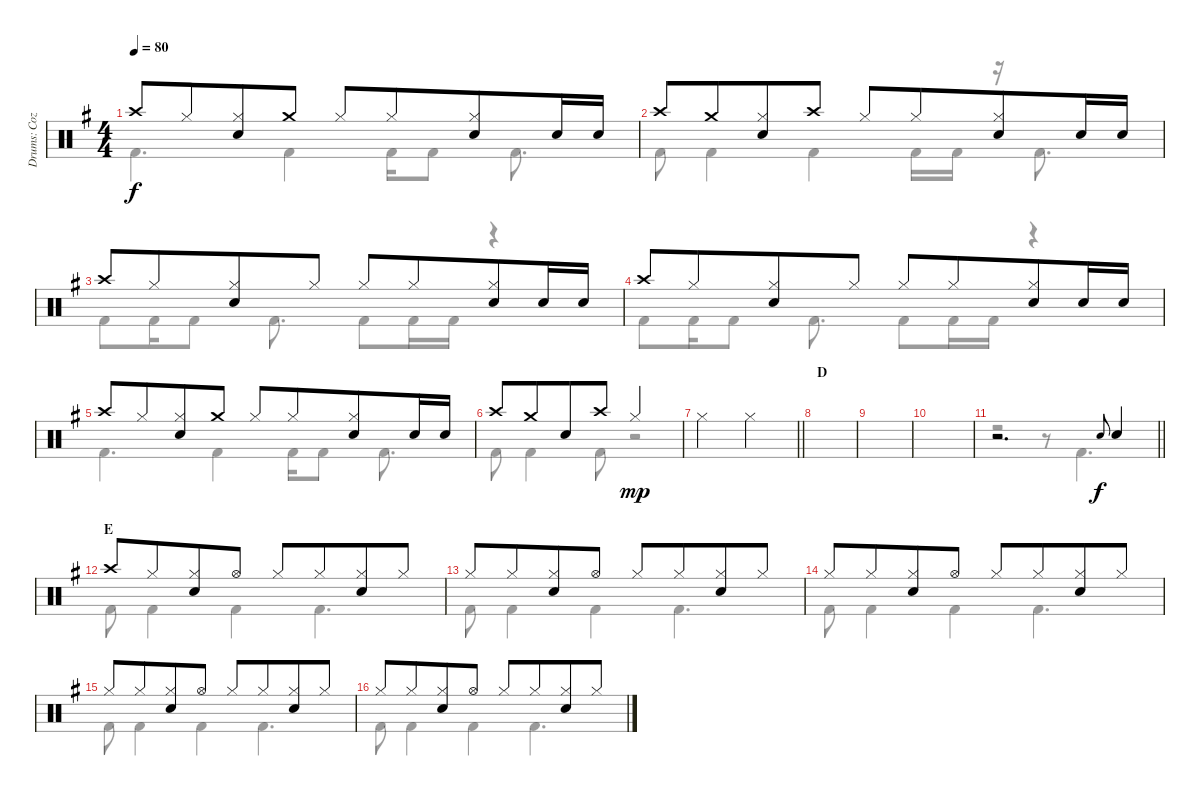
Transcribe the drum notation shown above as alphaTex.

\track ("Drums: Cozy" "Drums: Coz") {instrument percussion}
\staff {score}
\articulation defaults
\voice
\ts (4 4)
\tempo 80
\clef neutral
\ks g "Crash high (hit)".8{dy f} "Hi-Hat (closed)".8{beam merge}
("Hi-Hat (closed)" "Electric Snare (hit)").8 "Crash medium (hit)".8 "Hi-Hat (closed)".8 "Hi-Hat (closed)".8{beam merge} ("Hi-Hat (closed)" "Electric Snare (hit)").8 "Electric Snare (hit)".16 "Electric Snare (hit)".16 |
"Crash high (hit)".8 "Crash medium (hit)".8{beam merge} ("Hi-Hat (closed)" "Electric Snare (hit)").8 "Crash high (hit)".8 "Hi-Hat (closed)".8 "Hi-Hat (closed)".8{beam merge} ("Hi-Hat (closed)" "Electric Snare (hit)").8 "Electric Snare (hit)".16 "Electric Snare (hit)".16 |
"Crash high (hit)".8 "Hi-Hat (closed)".8{beam merge} ("Hi-Hat (closed)" "Electric Snare (hit)").8 "Hi-Hat (closed)".8 "Hi-Hat (closed)".8 "Hi-Hat (closed)".8{beam merge} ("Hi-Hat (closed)" "Electric Snare (hit)").8 "Electric Snare (hit)".16 "Electric Snare (hit)".16 |
"Crash high (hit)".8 "Hi-Hat (closed)".8{beam merge} ("Hi-Hat (closed)" "Electric Snare (hit)").8 "Hi-Hat (closed)".8 "Hi-Hat (closed)".8 "Hi-Hat (closed)".8{beam merge} ("Hi-Hat (closed)" "Electric Snare (hit)").8 "Electric Snare (hit)".16 "Electric Snare (hit)".16 |
"Crash high (hit)".8 "Hi-Hat (closed)".8{beam merge} ("Hi-Hat (closed)" "Electric Snare (hit)").8 "Crash medium (hit)".8 "Hi-Hat (closed)".8 "Hi-Hat (closed)".8{beam merge} ("Hi-Hat (closed)" "Electric Snare (hit)").8 "Electric Snare (hit)".16 "Electric Snare (hit)".16 |
"Crash high (hit)".8 "Crash medium (hit)".8{beam merge} "Electric Snare (hit)".8 "Crash high (hit)".8 "Hi-Hat (closed)".2{dy mp} |
\barLineRight lightlight "Hi-Hat (closed)".2 "Hi-Hat (closed)".2
|
\section ("" "D")
|
|
|
\barLineRight lightlight
r.2{d} "Electric Snare (hit)".8{gr onbeat dy f} "Snare (hit) 2".4 |
\section ("" "E")
"Crash high (hit)".8 "Hi-Hat (closed)".8{beam merge} ("Hi-Hat (closed)" "Electric Snare (hit)").8 "Hi-Hat (open)".8 "Hi-Hat (closed)".8 "Hi-Hat (closed)".8{beam merge} ("Hi-Hat (closed)" "Electric Snare (hit)").8 "Hi-Hat (closed)".8 |
"Hi-Hat (closed)".8 "Hi-Hat (closed)".8{beam merge} ("Hi-Hat (closed)" "Electric Snare (hit)").8 "Hi-Hat (open)".8 "Hi-Hat (closed)".8 "Hi-Hat (closed)".8{beam merge} ("Hi-Hat (closed)" "Electric Snare (hit)").8 "Hi-Hat (closed)".8 |
"Hi-Hat (closed)".8 "Hi-Hat (closed)".8{beam merge} ("Hi-Hat (closed)" "Electric Snare (hit)").8 "Hi-Hat (open)".8 "Hi-Hat (closed)".8 "Hi-Hat (closed)".8{beam merge} ("Hi-Hat (closed)" "Electric Snare (hit)").8 "Hi-Hat (closed)".8 |
"Hi-Hat (closed)".8 "Hi-Hat (closed)".8{beam merge} ("Hi-Hat (closed)" "Electric Snare (hit)").8 "Hi-Hat (open)".8 "Hi-Hat (closed)".8 "Hi-Hat (closed)".8{beam merge} ("Hi-Hat (closed)" "Electric Snare (hit)").8 "Hi-Hat (closed)".8 |
"Hi-Hat (closed)".8 "Hi-Hat (closed)".8{beam merge} ("Hi-Hat (closed)" "Electric Snare (hit)").8 "Hi-Hat (open)".8 "Hi-Hat (closed)".8 "Hi-Hat (closed)".8{beam merge} ("Hi-Hat (closed)" "Electric Snare (hit)").8 "Hi-Hat (closed)".8
\voice
\clef neutral
\ottava regular
\simile none
\ks g "Kick (hit) 2".4{d dy f} "Kick (hit) 2".4 "Kick (hit) 2".16 "Kick (hit) 2".8 "Kick (hit) 2".8{d}
|
"Kick (hit) 2".8 "Kick (hit) 2".4 "Kick (hit) 2".4 "Kick (hit) 2".16 "Kick (hit) 2".16 r.16 "Kick (hit) 2".8{d} |
"Kick (hit) 2".8 "Kick (hit) 2".16 "Kick (hit) 2".8 "Kick (hit) 2".8{d} "Kick (hit) 2".8 "Kick (hit) 2".16 "Kick (hit) 2".16 r.4 |
"Kick (hit) 2".8 "Kick (hit) 2".16 "Kick (hit) 2".8 "Kick (hit) 2".8{d} "Kick (hit) 2".8 "Kick (hit) 2".16 "Kick (hit) 2".16 r.4 |
"Kick (hit) 2".4{d} "Kick (hit) 2".4 "Kick (hit) 2".16 "Kick (hit) 2".8 "Kick (hit) 2".8{d} |
"Kick (hit) 2".8 "Kick (hit) 2".4 "Kick (hit) 2".8 r.2 |
\barLineRight lightlight
|
|
|
|
\barLineRight lightlight
r.2 r.8 "Kick (hit) 2".4{d} |
"Kick (hit) 2".8 "Kick (hit) 2".4 "Kick (hit) 2".4 "Kick (hit) 2".4{d} |
"Kick (hit) 2".8 "Kick (hit) 2".4 "Kick (hit) 2".4 "Kick (hit) 2".4{d} |
"Kick (hit) 2".8 "Kick (hit) 2".4 "Kick (hit) 2".4 "Kick (hit) 2".4{d} |
"Kick (hit) 2".8 "Kick (hit) 2".4 "Kick (hit) 2".4 "Kick (hit) 2".4{d} |
"Kick (hit) 2".8 "Kick (hit) 2".4 "Kick (hit) 2".4 "Kick (hit) 2".4{d}
